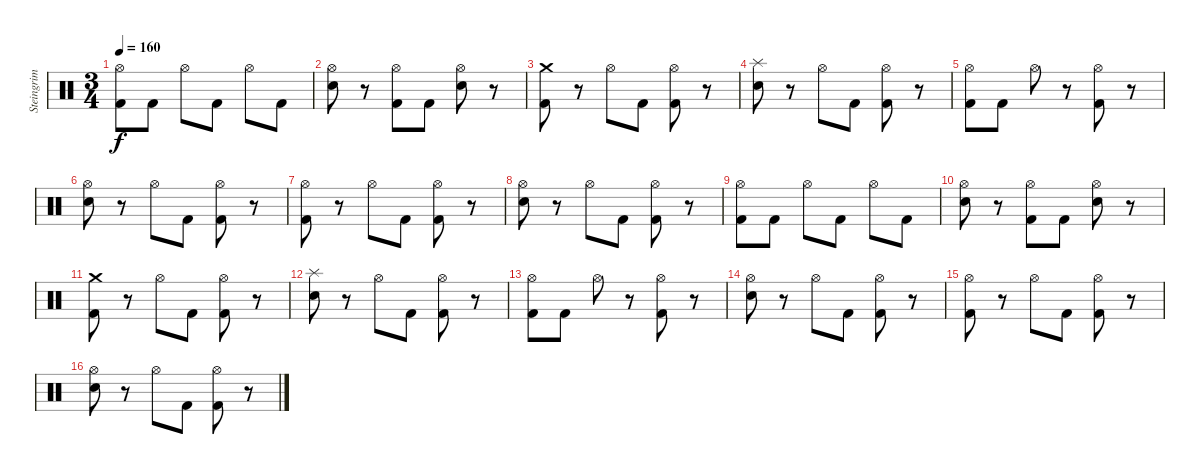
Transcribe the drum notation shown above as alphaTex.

\track ("Steingrim Trommur" "Steingrim ") {instrument percussion}
\staff {score}
\articulation defaults
\ts (3 4)
\tempo 160
\clef neutral
\ks c
("Hi-Hat (open)" "Kick (hit) 2").8{dy f} "Kick (hit) 2".8 "Hi-Hat (open)".8 "Kick (hit) 2".8 "Hi-Hat (open)".8 "Kick (hit) 2".8 |
("Hi-Hat (open)" "Electric Snare (hit)").8 r.8 ("Hi-Hat (open)" "Kick (hit) 2").8 "Kick (hit) 2".8 ("Hi-Hat (open)" "Electric Snare (hit)").8 r.8 |
("Crash medium (hit)" "Kick (hit) 2").8 r.8 "Hi-Hat (open)".8 "Kick (hit) 2".8 ("Hi-Hat (open)" "Kick (hit) 2").8 r.8 |
("Splash (hit)" "Electric Snare (hit)").8 r.8 "Hi-Hat (open)".8 "Kick (hit) 2".8 ("Hi-Hat (open)" "Kick (hit) 2").8 r.8 |
("Hi-Hat (open)" "Kick (hit) 2").8 "Kick (hit) 2".8 "Hi-Hat (open)".8 r.8 ("Hi-Hat (open)" "Kick (hit) 2").8 r.8 |
("Hi-Hat (open)" "Electric Snare (hit)").8 r.8 "Hi-Hat (open)".8 "Kick (hit) 2".8 ("Hi-Hat (open)" "Kick (hit) 2").8 r.8 |
("Hi-Hat (open)" "Kick (hit) 2").8 r.8 "Hi-Hat (open)".8 "Kick (hit) 2".8 ("Hi-Hat (open)" "Kick (hit) 2").8 r.8 |
("Hi-Hat (open)" "Electric Snare (hit)").8 r.8 "Hi-Hat (open)".8 "Kick (hit) 2".8 ("Hi-Hat (open)" "Kick (hit) 2").8 r.8 |
("Hi-Hat (open)" "Kick (hit) 2").8 "Kick (hit) 2".8 "Hi-Hat (open)".8 "Kick (hit) 2".8 "Hi-Hat (open)".8 "Kick (hit) 2".8 |
("Hi-Hat (open)" "Electric Snare (hit)").8 r.8 ("Hi-Hat (open)" "Kick (hit) 2").8 "Kick (hit) 2".8 ("Hi-Hat (open)" "Electric Snare (hit)").8 r.8 |
("Crash medium (hit)" "Kick (hit) 2").8 r.8 "Hi-Hat (open)".8 "Kick (hit) 2".8 ("Hi-Hat (open)" "Kick (hit) 2").8 r.8 |
("Splash (hit)" "Electric Snare (hit)").8 r.8 "Hi-Hat (open)".8 "Kick (hit) 2".8 ("Hi-Hat (open)" "Kick (hit) 2").8 r.8 |
("Hi-Hat (open)" "Kick (hit) 2").8 "Kick (hit) 2".8 "Hi-Hat (open)".8 r.8 ("Hi-Hat (open)" "Kick (hit) 2").8 r.8 |
("Hi-Hat (open)" "Electric Snare (hit)").8 r.8 "Hi-Hat (open)".8 "Kick (hit) 2".8 ("Hi-Hat (open)" "Kick (hit) 2").8 r.8 |
("Hi-Hat (open)" "Kick (hit) 2").8 r.8 "Hi-Hat (open)".8 "Kick (hit) 2".8 ("Hi-Hat (open)" "Kick (hit) 2").8 r.8 |
("Hi-Hat (open)" "Electric Snare (hit)").8 r.8 "Hi-Hat (open)".8 "Kick (hit) 2".8 ("Hi-Hat (open)" "Kick (hit) 2").8 r.8
